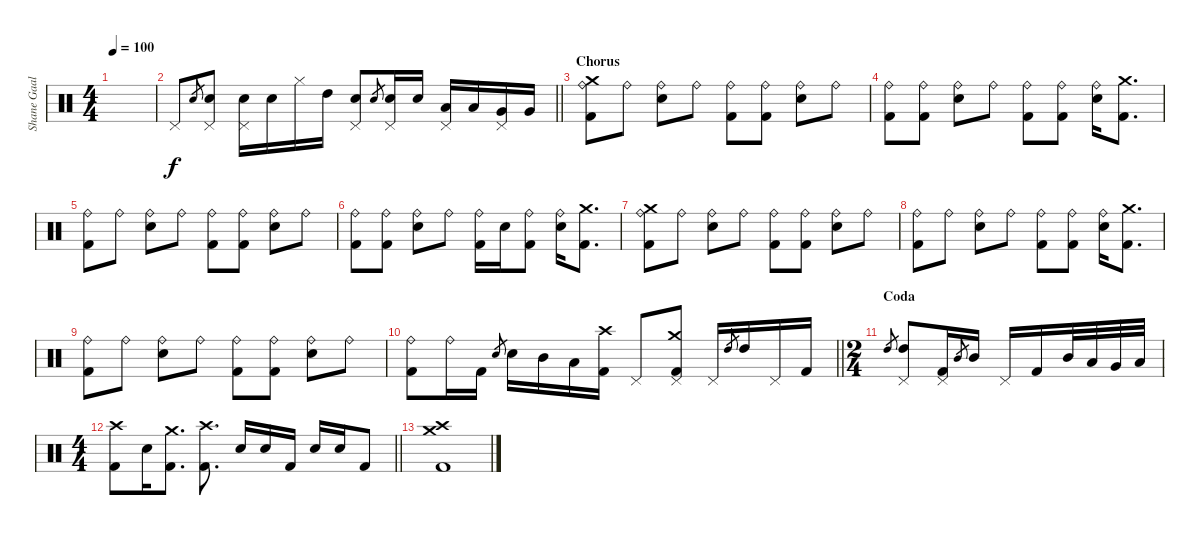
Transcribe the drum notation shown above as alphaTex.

\track ("Shane Gaalaas" "Shane Gaal") {instrument percussion}
\staff {score}
\articulation defaults
\ts (4 4)
\tempo 100
\clef neutral
\ks c
|
\barLineRight lightlight "Pedal Hi-Hat (hit)".8 "Snare (hit) 2".8{gr}
("Snare (hit) 2" "Pedal Hi-Hat (hit)").8 ("Snare (hit) 2" "Pedal Hi-Hat (hit)").16 "Snare (hit) 2".16 "Hi-Hat (closed)".16 "High Tom (hit)".16 ("Snare (hit) 2" "Pedal Hi-Hat (hit)").8 "Snare (hit) 2".8{gr} ("Snare (hit) 2" "Pedal Hi-Hat (hit)").16 "Snare (hit) 2".16 ("Low Tom (hit)" "Pedal Hi-Hat (hit)").16 "Low Tom (hit)".16 ("Very Low Tom (hit)" "Pedal Hi-Hat (hit)").16 "Very Low Tom (hit)".16 |
\section ("" "Chorus")
("Crash medium (hit)" "Ride (bell)" "Kick (hit) 2").8 "Ride (bell)".8 ("Ride (bell)" "Snare (hit) 2").8 "Ride (bell)".8 ("Ride (bell)" "Kick (hit) 2").8 ("Ride (bell)" "Kick (hit) 2").8 ("Ride (bell)" "Snare (hit) 2").8 "Ride (bell)".8 |
("Ride (bell)" "Kick (hit) 2").8 ("Ride (bell)" "Kick (hit) 2").8 ("Ride (bell)" "Snare (hit) 2").8 "Ride (bell)".8 ("Ride (bell)" "Kick (hit) 2").8 ("Ride (bell)" "Kick (hit) 2").8 ("Ride (bell)" "Snare (hit) 2").16 ("Crash medium (hit)" "Kick (hit) 2").8{d} |
("Ride (bell)" "Kick (hit) 2").8 "Ride (bell)".8 ("Ride (bell)" "Snare (hit) 2").8 "Ride (bell)".8 ("Ride (bell)" "Kick (hit) 2").8 ("Ride (bell)" "Kick (hit) 2").8 ("Ride (bell)" "Snare (hit) 2").8 "Ride (bell)".8 |
("Ride (bell)" "Kick (hit) 2").8 ("Ride (bell)" "Kick (hit) 2").8 ("Ride (bell)" "Snare (hit) 2").8 "Ride (bell)".8 ("Ride (bell)" "Kick (hit) 2").16 "Snare (hit) 2".16 ("Ride (bell)" "Kick (hit) 2").8 ("Ride (bell)" "Snare (hit) 2").16 ("Crash medium (hit)" "Kick (hit) 2").8{d} |
("Crash medium (hit)" "Ride (bell)" "Kick (hit) 2").8 "Ride (bell)".8 ("Ride (bell)" "Snare (hit) 2").8 "Ride (bell)".8 ("Ride (bell)" "Kick (hit) 2").8 ("Ride (bell)" "Kick (hit) 2").8 ("Ride (bell)" "Snare (hit) 2").8 "Ride (bell)".8 |
("Ride (bell)" "Kick (hit) 2").8 "Ride (bell)".8 ("Ride (bell)" "Snare (hit) 2").8 "Ride (bell)".8 ("Ride (bell)" "Kick (hit) 2").8 ("Ride (bell)" "Kick (hit) 2").8 ("Ride (bell)" "Snare (hit) 2").16 ("Crash medium (hit)" "Kick (hit) 2").8{d} |
("Ride (bell)" "Kick (hit) 2").8 "Ride (bell)".8 ("Ride (bell)" "Snare (hit) 2").8 "Ride (bell)".8 ("Ride (bell)" "Kick (hit) 2").8 ("Ride (bell)" "Kick (hit) 2").8 ("Ride (bell)" "Snare (hit) 2").8 "Ride (bell)".8 |
\barLineRight lightlight
("Ride (bell)" "Kick (hit) 2").8 "Ride (bell)".16 "Kick (hit) 2".16 "Snare (hit) 2".8{gr} "Snare (hit) 2".16 "Mid Tom (hit)".16 "Low Tom (hit)".16 ("Crash high (hit)" "Kick (hit) 2").16 "Pedal Hi-Hat (hit)".8 ("Crash medium (hit)" "Pedal Hi-Hat (hit)" "Kick (hit) 2").8 "Pedal Hi-Hat (hit)".16 "High Tom (hit)".8{gr} "High Tom (hit)".16 "Pedal Hi-Hat (hit)".16 "Kick (hit) 2".16 |
\ts (2 4)
\section ("" "Coda")
"High Tom (hit)".8{gr} ("Pedal Hi-Hat (hit)" "High Tom (hit)").8 ("Pedal Hi-Hat (hit)" "Kick (hit) 2").16 "Mid Tom (hit)".8{gr} "Mid Tom (hit)".16 "Pedal Hi-Hat (hit)".16 "Kick (hit) 2".16 "Mid Tom (hit)".32 "Low Tom (hit)".32 "Very Low Tom (hit)".32 "Low Floor Tom (hit)".32 |
\ts (4 4)
\barLineRight lightlight
("Crash high (hit)" "Kick (hit) 2").8 "Snare (hit) 2".16 ("Crash medium (hit)" "Kick (hit) 2").8{d} ("Crash high (hit)" "Kick (hit) 2").8{d} "Snare (hit) 2".16 "Snare (hit) 2".16 "Kick (hit) 2".16 "Snare (hit) 2".16 "Snare (hit) 2".16 "Kick (hit) 2".8 |
("Crash high (hit)" "Crash medium (hit)" "Kick (hit) 2").1
